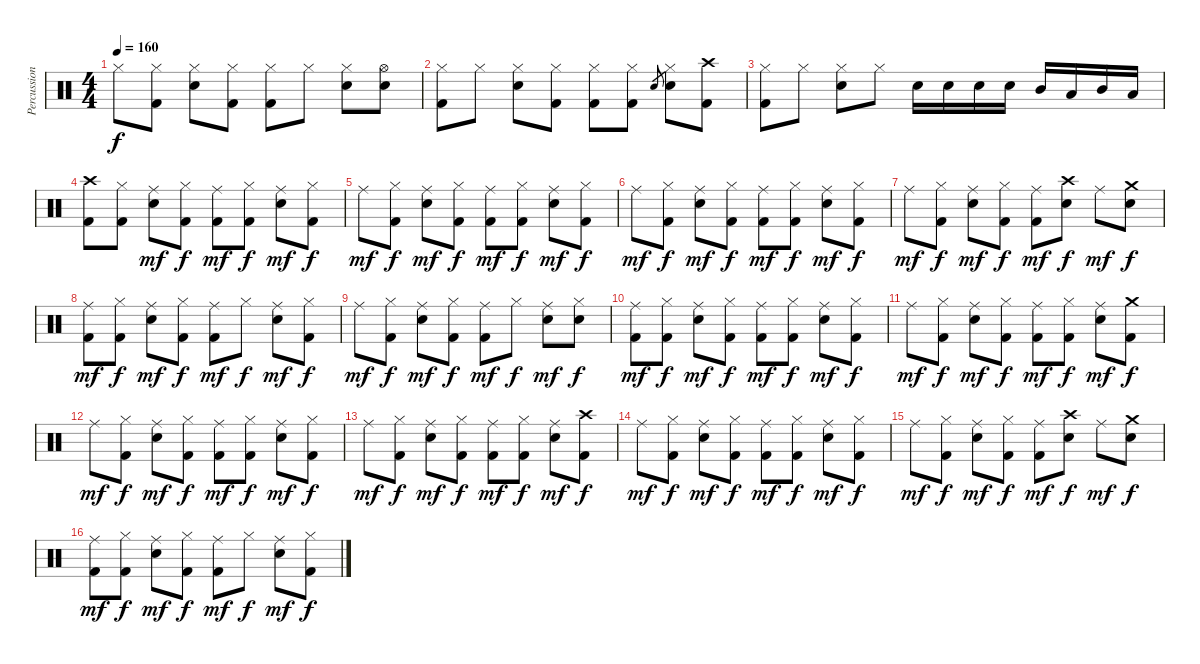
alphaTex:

\track ("Percussions" "Percussion") {instrument percussion}
\staff {score}
\articulation defaults
\ts (4 4)
\tempo 160
\clef neutral
\ks c "Hi-Hat (closed)".8{dy f}
("Hi-Hat (closed)" "Kick (hit) 2").8 ("Hi-Hat (closed)" "Electric Snare (hit)").8 ("Hi-Hat (closed)" "Kick (hit) 2").8 ("Hi-Hat (closed)" "Kick (hit) 2").8 "Hi-Hat (closed)".8 ("Hi-Hat (closed)" "Electric Snare (hit)").8 ("Hi-Hat (open)" "Electric Snare (hit)").8 |
("Hi-Hat (closed)" "Kick (hit) 2").8 "Hi-Hat (closed)".8 ("Hi-Hat (closed)" "Electric Snare (hit)").8 ("Hi-Hat (closed)" "Kick (hit) 2").8 ("Hi-Hat (closed)" "Kick (hit) 2").8 ("Hi-Hat (closed)" "Kick (hit) 2").8 "Electric Snare (hit)".8{gr} ("Hi-Hat (closed)" "Electric Snare (hit)").8 ("Crash high (hit)" "Kick (hit) 2").8 |
("Hi-Hat (closed)" "Kick (hit) 2").8 "Hi-Hat (closed)".8 ("Hi-Hat (closed)" "Electric Snare (hit)").8 "Hi-Hat (closed)".8 "Electric Snare (hit)".16 "Electric Snare (hit)".16 "Electric Snare (hit)".16 "Electric Snare (hit)".16 "Mid Tom (hit)".16 "Low Tom (hit)".16 "Mid Tom (hit)".16 "Low Tom (hit)".16 |
("Crash high (hit)" "Kick (hit) 2").8 ("Hi-Hat (closed)" "Kick (hit) 2").8 ("Ride (middle)" "Electric Snare (hit)").8{dy mf} ("Hi-Hat (closed)" "Kick (hit) 2").8{dy f} ("Ride (middle)" "Kick (hit) 2").8{dy mf} ("Hi-Hat (closed)" "Kick (hit) 2").8{dy f} ("Ride (middle)" "Electric Snare (hit)").8{dy mf} ("Hi-Hat (closed)" "Kick (hit) 2").8{dy f} |
"Ride (middle)".8{dy mf} ("Hi-Hat (closed)" "Kick (hit) 2").8{dy f} ("Ride (middle)" "Electric Snare (hit)").8{dy mf} ("Hi-Hat (closed)" "Kick (hit) 2").8{dy f} ("Ride (middle)" "Kick (hit) 2").8{dy mf} ("Hi-Hat (closed)" "Kick (hit) 2").8{dy f} ("Ride (middle)" "Electric Snare (hit)").8{dy mf} ("Hi-Hat (closed)" "Kick (hit) 2").8{dy f} |
"Ride (middle)".8{dy mf} ("Hi-Hat (closed)" "Kick (hit) 2").8{dy f} ("Ride (middle)" "Electric Snare (hit)").8{dy mf} ("Hi-Hat (closed)" "Kick (hit) 2").8{dy f} ("Ride (middle)" "Kick (hit) 2").8{dy mf} ("Hi-Hat (closed)" "Kick (hit) 2").8{dy f} ("Ride (middle)" "Electric Snare (hit)").8{dy mf} ("Hi-Hat (closed)" "Kick (hit) 2").8{dy f} |
"Ride (middle)".8{dy mf} ("Hi-Hat (closed)" "Kick (hit) 2").8{dy f} ("Ride (middle)" "Electric Snare (hit)").8{dy mf} ("Hi-Hat (closed)" "Kick (hit) 2").8{dy f} ("Ride (middle)" "Kick (hit) 2").8{dy mf} ("Crash high (hit)" "Electric Snare (hit)").8{dy f} "Ride (middle)".8{dy mf} ("Crash medium (hit)" "Electric Snare (hit)").8{dy f} |
("Ride (middle)" "Kick (hit) 2").8{dy mf} ("Hi-Hat (closed)" "Kick (hit) 2").8{dy f} ("Ride (middle)" "Electric Snare (hit)").8{dy mf} ("Hi-Hat (closed)" "Kick (hit) 2").8{dy f} ("Ride (middle)" "Kick (hit) 2").8{dy mf} "Hi-Hat (closed)".8{dy f} ("Ride (middle)" "Electric Snare (hit)").8{dy mf} ("Hi-Hat (closed)" "Kick (hit) 2").8{dy f} |
"Ride (middle)".8{dy mf} ("Hi-Hat (closed)" "Kick (hit) 2").8{dy f} ("Ride (middle)" "Electric Snare (hit)").8{dy mf} ("Hi-Hat (closed)" "Kick (hit) 2").8{dy f} ("Ride (middle)" "Kick (hit) 2").8{dy mf} "Hi-Hat (closed)".8{dy f} ("Ride (middle)" "Electric Snare (hit)").8{dy mf} ("Hi-Hat (closed)" "Electric Snare (hit)").8{dy f} |
("Ride (middle)" "Kick (hit) 2").8{dy mf} ("Hi-Hat (closed)" "Kick (hit) 2").8{dy f} ("Ride (middle)" "Electric Snare (hit)").8{dy mf} ("Hi-Hat (closed)" "Kick (hit) 2").8{dy f} ("Ride (middle)" "Kick (hit) 2").8{dy mf} ("Hi-Hat (closed)" "Kick (hit) 2").8{dy f} ("Ride (middle)" "Electric Snare (hit)").8{dy mf} ("Hi-Hat (closed)" "Kick (hit) 2").8{dy f} |
"Ride (middle)".8{dy mf} ("Hi-Hat (closed)" "Kick (hit) 2").8{dy f} ("Ride (middle)" "Electric Snare (hit)").8{dy mf} ("Hi-Hat (closed)" "Kick (hit) 2").8{dy f} ("Ride (middle)" "Kick (hit) 2").8{dy mf} ("Hi-Hat (closed)" "Kick (hit) 2").8{dy f} ("Ride (middle)" "Electric Snare (hit)").8{dy mf} ("Crash medium (hit)" "Kick (hit) 2").8{dy f} |
"Ride (middle)".8{dy mf} ("Hi-Hat (closed)" "Kick (hit) 2").8{dy f} ("Ride (middle)" "Electric Snare (hit)").8{dy mf} ("Hi-Hat (closed)" "Kick (hit) 2").8{dy f} ("Ride (middle)" "Kick (hit) 2").8{dy mf} ("Hi-Hat (closed)" "Kick (hit) 2").8{dy f} ("Ride (middle)" "Electric Snare (hit)").8{dy mf} ("Hi-Hat (closed)" "Kick (hit) 2").8{dy f} |
"Ride (middle)".8{dy mf} ("Hi-Hat (closed)" "Kick (hit) 2").8{dy f} ("Ride (middle)" "Electric Snare (hit)").8{dy mf} ("Hi-Hat (closed)" "Kick (hit) 2").8{dy f} ("Ride (middle)" "Kick (hit) 2").8{dy mf} ("Hi-Hat (closed)" "Kick (hit) 2").8{dy f} ("Ride (middle)" "Electric Snare (hit)").8{dy mf} ("Crash high (hit)" "Kick (hit) 2").8{dy f} |
"Ride (middle)".8{dy mf} ("Hi-Hat (closed)" "Kick (hit) 2").8{dy f} ("Ride (middle)" "Electric Snare (hit)").8{dy mf} ("Hi-Hat (closed)" "Kick (hit) 2").8{dy f} ("Ride (middle)" "Kick (hit) 2").8{dy mf} ("Hi-Hat (closed)" "Kick (hit) 2").8{dy f} ("Ride (middle)" "Electric Snare (hit)").8{dy mf} ("Hi-Hat (closed)" "Kick (hit) 2").8{dy f} |
"Ride (middle)".8{dy mf} ("Hi-Hat (closed)" "Kick (hit) 2").8{dy f} ("Ride (middle)" "Electric Snare (hit)").8{dy mf} ("Hi-Hat (closed)" "Kick (hit) 2").8{dy f} ("Ride (middle)" "Kick (hit) 2").8{dy mf} ("Crash high (hit)" "Electric Snare (hit)").8{dy f} "Ride (middle)".8{dy mf} ("Crash medium (hit)" "Electric Snare (hit)").8{dy f} |
("Ride (middle)" "Kick (hit) 2").8{dy mf} ("Hi-Hat (closed)" "Kick (hit) 2").8{dy f} ("Ride (middle)" "Electric Snare (hit)").8{dy mf} ("Hi-Hat (closed)" "Kick (hit) 2").8{dy f} ("Ride (middle)" "Kick (hit) 2").8{dy mf} "Hi-Hat (closed)".8{dy f} ("Ride (middle)" "Electric Snare (hit)").8{dy mf} ("Hi-Hat (closed)" "Kick (hit) 2").8{dy f}
